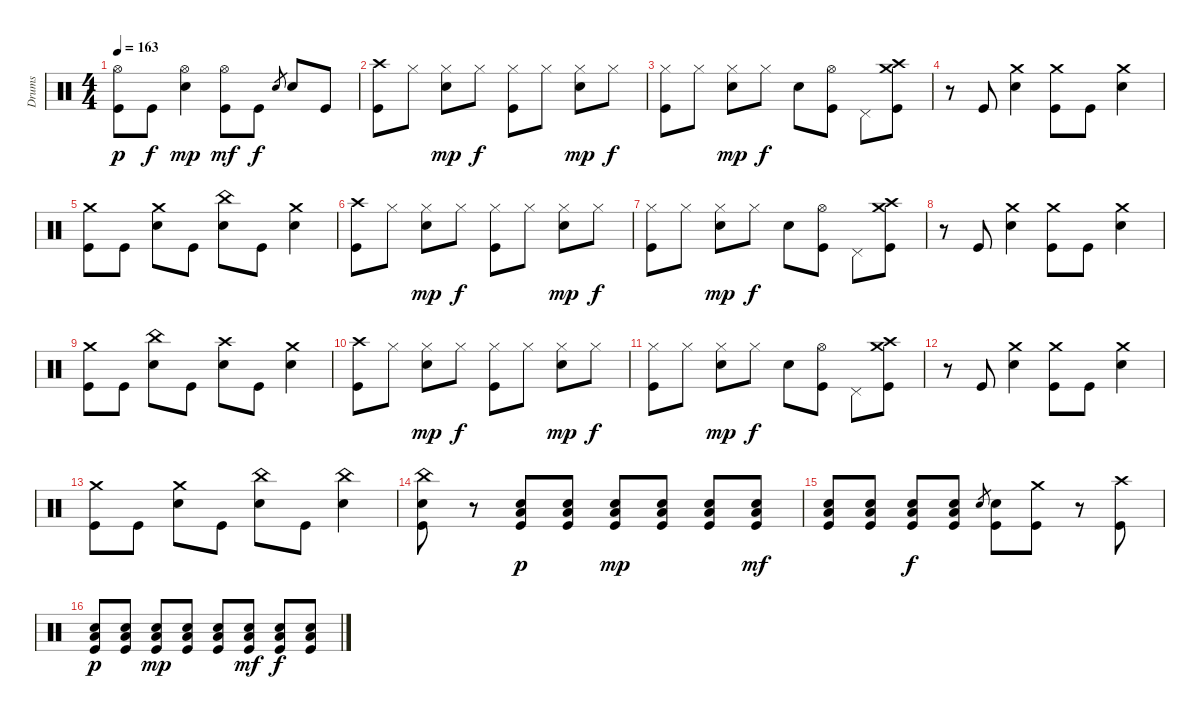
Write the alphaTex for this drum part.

\track ("Drums" "Drums") {instrument percussion}
\staff {score}
\articulation defaults
\ts (4 4)
\tempo 163
\clef neutral
\ks c
("Hi-Hat (open)" "Kick (hit)").8{dy p} "Kick (hit)".8{dy f} ("Hi-Hat (open)" "Electric Snare (hit)").4{dy mp} ("Hi-Hat (open)" "Kick (hit)").8{dy mf} "Kick (hit)".8{dy f} "Electric Snare (hit)".8{gr} "Electric Snare (hit)".8 "Kick (hit)".8 |
("Crash high (hit)" "Kick (hit)").8 "Hi-Hat (closed)".8 ("Hi-Hat (closed)" "Electric Snare (hit)").8{dy mp} "Hi-Hat (closed)".8{dy f} ("Hi-Hat (closed)" "Kick (hit)").8 "Hi-Hat (closed)".8 ("Hi-Hat (closed)" "Electric Snare (hit)").8{dy mp} "Hi-Hat (closed)".8{dy f} |
("Hi-Hat (closed)" "Kick (hit)").8 "Hi-Hat (closed)".8 ("Hi-Hat (closed)" "Electric Snare (hit)").8{dy mp} "Hi-Hat (closed)".8{dy f} "Electric Snare (hit)".8 ("Hi-Hat (open)" "Kick (hit)").8 "Pedal Hi-Hat (hit)".8 ("Crash high (hit)" "Crash medium (hit)" "Kick (hit)").8 |
r.8 "Kick (hit)".8 ("Crash medium (hit)" "Electric Snare (hit)").4 ("Crash medium (hit)" "Kick (hit)").8 "Kick (hit)".8 ("Crash medium (hit)" "Electric Snare (hit)").4 |
("Crash medium (hit)" "Kick (hit)").8 "Kick (hit)".8 ("Crash medium (hit)" "Electric Snare (hit)").8 "Kick (hit)".8 ("China (hit)" "Electric Snare (hit)").8 "Kick (hit)".8 ("Crash medium (hit)" "Electric Snare (hit)").4 |
("Crash high (hit)" "Kick (hit)").8 "Hi-Hat (closed)".8 ("Hi-Hat (closed)" "Electric Snare (hit)").8{dy mp} "Hi-Hat (closed)".8{dy f} ("Hi-Hat (closed)" "Kick (hit)").8 "Hi-Hat (closed)".8 ("Hi-Hat (closed)" "Electric Snare (hit)").8{dy mp} "Hi-Hat (closed)".8{dy f} |
("Hi-Hat (closed)" "Kick (hit)").8 "Hi-Hat (closed)".8 ("Hi-Hat (closed)" "Electric Snare (hit)").8{dy mp} "Hi-Hat (closed)".8{dy f} "Electric Snare (hit)".8 ("Hi-Hat (open)" "Kick (hit)").8 "Pedal Hi-Hat (hit)".8 ("Crash high (hit)" "Crash medium (hit)" "Kick (hit)").8 |
r.8 "Kick (hit)".8 ("Crash medium (hit)" "Electric Snare (hit)").4 ("Crash medium (hit)" "Kick (hit)").8 "Kick (hit)".8 ("Crash medium (hit)" "Electric Snare (hit)").4 |
("Crash medium (hit)" "Kick (hit)").8 "Kick (hit)".8 ("China (hit)" "Electric Snare (hit)").8 "Kick (hit)".8 ("Crash high (hit)" "Electric Snare (hit)").8 "Kick (hit)".8 ("Crash medium (hit)" "Electric Snare (hit)").4 |
("Crash high (hit)" "Kick (hit)").8 "Hi-Hat (closed)".8 ("Hi-Hat (closed)" "Electric Snare (hit)").8{dy mp} "Hi-Hat (closed)".8{dy f} ("Hi-Hat (closed)" "Kick (hit)").8 "Hi-Hat (closed)".8 ("Hi-Hat (closed)" "Electric Snare (hit)").8{dy mp} "Hi-Hat (closed)".8{dy f} |
("Hi-Hat (closed)" "Kick (hit)").8 "Hi-Hat (closed)".8 ("Hi-Hat (closed)" "Electric Snare (hit)").8{dy mp} "Hi-Hat (closed)".8{dy f} "Electric Snare (hit)".8 ("Hi-Hat (open)" "Kick (hit)").8 "Pedal Hi-Hat (hit)".8 ("Crash high (hit)" "Crash medium (hit)" "Kick (hit)").8 |
r.8 "Kick (hit)".8 ("Crash medium (hit)" "Electric Snare (hit)").4 ("Crash medium (hit)" "Kick (hit)").8 "Kick (hit)".8 ("Crash medium (hit)" "Electric Snare (hit)").4 |
("Crash medium (hit)" "Kick (hit)").8 "Kick (hit)".8 ("Crash medium (hit)" "Electric Snare (hit)").8 "Kick (hit)".8 ("China (hit)" "Electric Snare (hit)").8 "Kick (hit)".8 ("China (hit)" "Electric Snare (hit)").4 |
("China (hit)" "Electric Snare (hit)" "Kick (hit)").8 r.8 ("Low Tom (hit)" "Electric Snare (hit)" "Kick (hit)").8{dy p} ("Low Tom (hit)" "Electric Snare (hit)" "Kick (hit)").8 ("Low Tom (hit)" "Electric Snare (hit)" "Kick (hit)").8{dy mp} ("Low Tom (hit)" "Electric Snare (hit)" "Kick (hit)").8 ("Low Tom (hit)" "Electric Snare (hit)" "Kick (hit)").8 ("Low Tom (hit)" "Electric Snare (hit)" "Kick (hit)").8{dy mf} |
("Low Tom (hit)" "Electric Snare (hit)" "Kick (hit)").8 ("Low Tom (hit)" "Electric Snare (hit)" "Kick (hit)").8 ("Low Tom (hit)" "Electric Snare (hit)" "Kick (hit)").8{dy f} ("Low Tom (hit)" "Electric Snare (hit)" "Kick (hit)").8 "Electric Snare (hit)".8{gr} ("Electric Snare (hit)" "Kick (hit)").8 ("Crash medium (hit)" "Kick (hit)").8 r.8 ("Crash high (hit)" "Kick (hit)").8 |
("Low Tom (hit)" "Electric Snare (hit)" "Kick (hit)").8{dy p} ("Low Tom (hit)" "Electric Snare (hit)" "Kick (hit)").8 ("Low Tom (hit)" "Electric Snare (hit)" "Kick (hit)").8{dy mp} ("Low Tom (hit)" "Electric Snare (hit)" "Kick (hit)").8 ("Low Tom (hit)" "Electric Snare (hit)" "Kick (hit)").8 ("Low Tom (hit)" "Electric Snare (hit)" "Kick (hit)").8{dy mf} ("Low Tom (hit)" "Electric Snare (hit)" "Kick (hit)").8{dy f} ("Low Tom (hit)" "Electric Snare (hit)" "Kick (hit)").8
